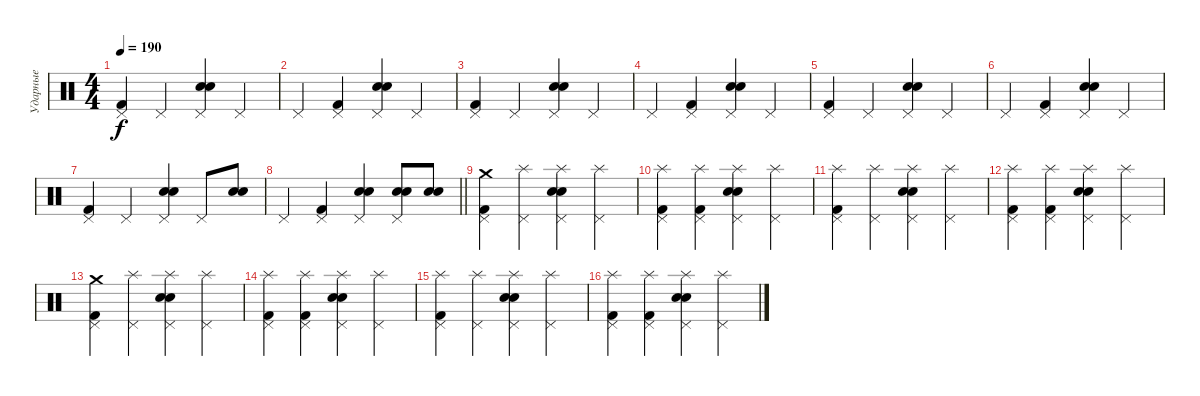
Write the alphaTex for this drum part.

\track ("Ударные" "Ударные") {instrument percussion}
\staff {score}
\articulation defaults
\ts (4 4)
\tempo 190
\clef neutral
\ks c
("Pedal Hi-Hat (hit)" "Kick (hit) 2").4{dy f} "Pedal Hi-Hat (hit)".4 ("Pedal Hi-Hat (hit)" "Electric Snare (hit)" "Snare (hit) 2").4 "Pedal Hi-Hat (hit)".4 |
"Pedal Hi-Hat (hit)".4 ("Pedal Hi-Hat (hit)" "Kick (hit) 2").4 ("Pedal Hi-Hat (hit)" "Electric Snare (hit)" "Snare (hit) 2").4 "Pedal Hi-Hat (hit)".4 |
("Pedal Hi-Hat (hit)" "Kick (hit) 2").4 "Pedal Hi-Hat (hit)".4 ("Pedal Hi-Hat (hit)" "Electric Snare (hit)" "Snare (hit) 2").4 "Pedal Hi-Hat (hit)".4 |
"Pedal Hi-Hat (hit)".4 ("Pedal Hi-Hat (hit)" "Kick (hit) 2").4 ("Pedal Hi-Hat (hit)" "Electric Snare (hit)" "Snare (hit) 2").4 "Pedal Hi-Hat (hit)".4 |
("Pedal Hi-Hat (hit)" "Kick (hit) 2").4 "Pedal Hi-Hat (hit)".4 ("Pedal Hi-Hat (hit)" "Electric Snare (hit)" "Snare (hit) 2").4 "Pedal Hi-Hat (hit)".4 |
"Pedal Hi-Hat (hit)".4 ("Pedal Hi-Hat (hit)" "Kick (hit) 2").4 ("Pedal Hi-Hat (hit)" "Electric Snare (hit)" "Snare (hit) 2").4 "Pedal Hi-Hat (hit)".4 |
("Pedal Hi-Hat (hit)" "Kick (hit) 2").4 "Pedal Hi-Hat (hit)".4 ("Pedal Hi-Hat (hit)" "Electric Snare (hit)" "Snare (hit) 2").4 "Pedal Hi-Hat (hit)".8 ("Electric Snare (hit)" "Snare (hit) 2").8 |
\barLineRight lightlight "Pedal Hi-Hat (hit)".4
("Pedal Hi-Hat (hit)" "Kick (hit) 2").4 ("Pedal Hi-Hat (hit)" "Electric Snare (hit)" "Snare (hit) 2").4 ("Pedal Hi-Hat (hit)" "Electric Snare (hit)" "Snare (hit) 2").8 ("Electric Snare (hit)" "Snare (hit) 2").8 |
("Crash medium (hit)" "Pedal Hi-Hat (hit)" "Kick (hit) 2").4 ("Splash (hit)" "Pedal Hi-Hat (hit)").4 ("Splash (hit)" "Pedal Hi-Hat (hit)" "Electric Snare (hit)" "Snare (hit) 2").4 ("Splash (hit)" "Pedal Hi-Hat (hit)").4 |
("Splash (hit)" "Pedal Hi-Hat (hit)" "Kick (hit) 2").4 ("Splash (hit)" "Pedal Hi-Hat (hit)" "Kick (hit) 2").4 ("Splash (hit)" "Pedal Hi-Hat (hit)" "Electric Snare (hit)" "Snare (hit) 2").4 ("Splash (hit)" "Pedal Hi-Hat (hit)").4 |
("Splash (hit)" "Pedal Hi-Hat (hit)" "Kick (hit) 2").4 ("Splash (hit)" "Pedal Hi-Hat (hit)").4 ("Splash (hit)" "Pedal Hi-Hat (hit)" "Electric Snare (hit)" "Snare (hit) 2").4 ("Splash (hit)" "Pedal Hi-Hat (hit)").4 |
("Splash (hit)" "Pedal Hi-Hat (hit)" "Kick (hit) 2").4 ("Splash (hit)" "Pedal Hi-Hat (hit)" "Kick (hit) 2").4 ("Splash (hit)" "Pedal Hi-Hat (hit)" "Electric Snare (hit)" "Snare (hit) 2").4 ("Splash (hit)" "Pedal Hi-Hat (hit)").4 |
("Crash medium (hit)" "Pedal Hi-Hat (hit)" "Kick (hit) 2").4 ("Splash (hit)" "Pedal Hi-Hat (hit)").4 ("Splash (hit)" "Pedal Hi-Hat (hit)" "Electric Snare (hit)" "Snare (hit) 2").4 ("Splash (hit)" "Pedal Hi-Hat (hit)").4 |
("Splash (hit)" "Pedal Hi-Hat (hit)" "Kick (hit) 2").4 ("Splash (hit)" "Pedal Hi-Hat (hit)" "Kick (hit) 2").4 ("Splash (hit)" "Pedal Hi-Hat (hit)" "Electric Snare (hit)" "Snare (hit) 2").4 ("Splash (hit)" "Pedal Hi-Hat (hit)").4 |
("Splash (hit)" "Pedal Hi-Hat (hit)" "Kick (hit) 2").4 ("Splash (hit)" "Pedal Hi-Hat (hit)").4 ("Splash (hit)" "Pedal Hi-Hat (hit)" "Electric Snare (hit)" "Snare (hit) 2").4 ("Splash (hit)" "Pedal Hi-Hat (hit)").4 |
("Splash (hit)" "Pedal Hi-Hat (hit)" "Kick (hit) 2").4 ("Splash (hit)" "Pedal Hi-Hat (hit)" "Kick (hit) 2").4 ("Splash (hit)" "Pedal Hi-Hat (hit)" "Electric Snare (hit)" "Snare (hit) 2").4 ("Splash (hit)" "Pedal Hi-Hat (hit)").4
